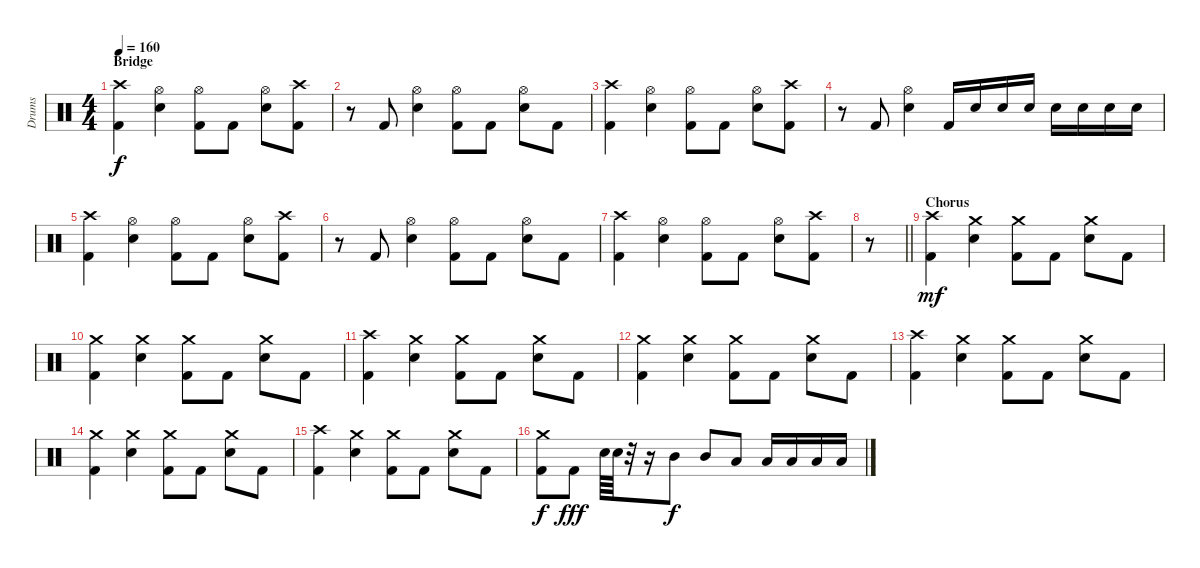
\track ("Drums" "Drums") {instrument percussion}
\staff {score}
\articulation defaults
\ts (4 4)
\section ("" "Bridge")
\tempo 160
\clef neutral
\ks c
("Crash high (hit)" "Kick (hit) 2").4{dy f} ("Hi-Hat (open)" "Electric Snare (hit)").4 ("Hi-Hat (open)" "Kick (hit) 2").8 "Kick (hit) 2".8 ("Hi-Hat (open)" "Electric Snare (hit)").8 ("Crash high (hit)" "Kick (hit) 2").8 |
r.8 "Kick (hit) 2".8 ("Hi-Hat (open)" "Electric Snare (hit)").4 ("Hi-Hat (open)" "Kick (hit) 2").8 "Kick (hit) 2".8 ("Hi-Hat (open)" "Electric Snare (hit)").8 "Kick (hit) 2".8 |
("Crash high (hit)" "Kick (hit) 2").4 ("Hi-Hat (open)" "Electric Snare (hit)").4 ("Hi-Hat (open)" "Kick (hit) 2").8 "Kick (hit) 2".8 ("Hi-Hat (open)" "Electric Snare (hit)").8 ("Crash high (hit)" "Kick (hit) 2").8 |
r.8 "Kick (hit) 2".8 ("Hi-Hat (open)" "Electric Snare (hit)").4 "Kick (hit) 2".16 "Electric Snare (hit)".16 "Electric Snare (hit)".16 "Electric Snare (hit)".16 "Electric Snare (hit)".16 "Electric Snare (hit)".16 "Electric Snare (hit)".16 "Electric Snare (hit)".16 |
("Crash high (hit)" "Kick (hit) 2").4 ("Hi-Hat (open)" "Electric Snare (hit)").4 ("Hi-Hat (open)" "Kick (hit) 2").8 "Kick (hit) 2".8 ("Hi-Hat (open)" "Electric Snare (hit)").8 ("Crash high (hit)" "Kick (hit) 2").8 |
r.8 "Kick (hit) 2".8 ("Hi-Hat (open)" "Electric Snare (hit)").4 ("Hi-Hat (open)" "Kick (hit) 2").8 "Kick (hit) 2".8 ("Hi-Hat (open)" "Electric Snare (hit)").8 "Kick (hit) 2".8 |
("Crash high (hit)" "Kick (hit) 2").4 ("Hi-Hat (open)" "Electric Snare (hit)").4 ("Hi-Hat (open)" "Kick (hit) 2").8 "Kick (hit) 2".8 ("Hi-Hat (open)" "Electric Snare (hit)").8 ("Crash high (hit)" "Kick (hit) 2").8 |
\barLineRight lightlight
r.8 |
\section ("" "Chorus")
("Crash high (hit)" "Kick (hit) 2").4{dy mf} ("Crash medium (hit)" "Electric Snare (hit)").4 ("Crash medium (hit)" "Kick (hit) 2").8 "Kick (hit) 2".8 ("Crash medium (hit)" "Electric Snare (hit)").8 "Kick (hit) 2".8 |
("Crash medium (hit)" "Kick (hit) 2").4 ("Crash medium (hit)" "Electric Snare (hit)").4 ("Crash medium (hit)" "Kick (hit) 2").8 "Kick (hit) 2".8 ("Crash medium (hit)" "Electric Snare (hit)").8 "Kick (hit) 2".8 |
("Crash high (hit)" "Kick (hit) 2").4 ("Crash medium (hit)" "Electric Snare (hit)").4 ("Crash medium (hit)" "Kick (hit) 2").8 "Kick (hit) 2".8 ("Crash medium (hit)" "Electric Snare (hit)").8 "Kick (hit) 2".8 |
("Crash medium (hit)" "Kick (hit) 2").4 ("Crash medium (hit)" "Electric Snare (hit)").4 ("Crash medium (hit)" "Kick (hit) 2").8 "Kick (hit) 2".8 ("Crash medium (hit)" "Electric Snare (hit)").8 "Kick (hit) 2".8 |
("Crash high (hit)" "Kick (hit) 2").4 ("Crash medium (hit)" "Electric Snare (hit)").4 ("Crash medium (hit)" "Kick (hit) 2").8 "Kick (hit) 2".8 ("Crash medium (hit)" "Electric Snare (hit)").8 "Kick (hit) 2".8 |
("Crash medium (hit)" "Kick (hit) 2").4 ("Crash medium (hit)" "Electric Snare (hit)").4 ("Crash medium (hit)" "Kick (hit) 2").8 "Kick (hit) 2".8 ("Crash medium (hit)" "Electric Snare (hit)").8 "Kick (hit) 2".8 |
("Crash high (hit)" "Kick (hit) 2").4 ("Crash medium (hit)" "Electric Snare (hit)").4 ("Crash medium (hit)" "Kick (hit) 2").8 "Kick (hit) 2".8 ("Crash medium (hit)" "Electric Snare (hit)").8 "Kick (hit) 2".8 |
("Crash medium (hit)" "Kick (hit) 2").8{dy f} "Kick (hit) 2".8{dy fff} "Electric Snare (hit)".64 "Electric Snare (hit)".64 r.32 r.16 "Mid Tom (hit)".8{dy f} "Mid Tom (hit)".8 "Low Tom (hit)".8 "Low Tom (hit)".16 "Low Tom (hit)".16 "Low Floor Tom (hit)".16 "Low Floor Tom (hit)".16
